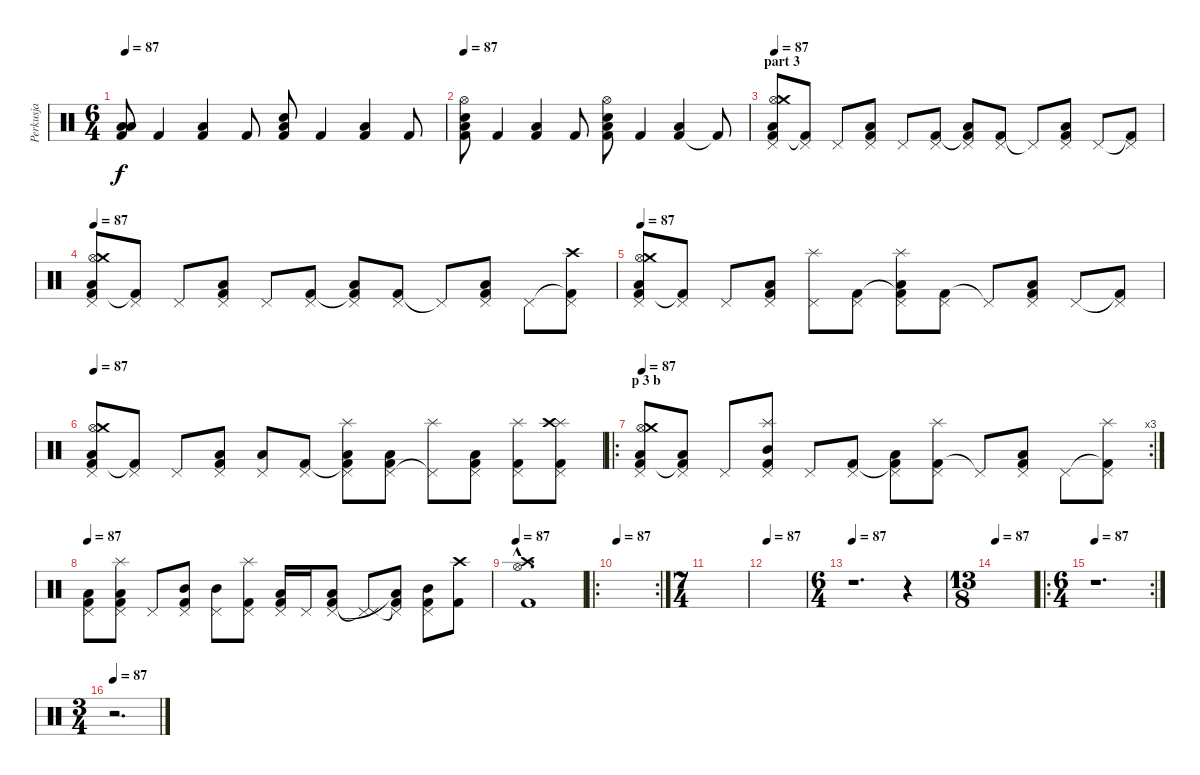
\track ("Perkusja" "Perkusja") {instrument percussion}
\staff {score}
\articulation defaults
\ts (6 4)
\tempo 87
\clef neutral
\ks c
("Kick (hit) 2" "Low Floor Tom (hit)" "Low Tom (hit)").8{dy f} "Kick (hit) 2".4 ("Kick (hit) 2" "Low Tom (hit)").4 "Kick (hit) 2".8 ("Kick (hit) 2" "Snare (hit) 2" "Low Tom (hit)").8 "Kick (hit) 2".4 ("Kick (hit) 2" "Low Tom (hit)").4 "Kick (hit) 2".8 |
\tempo 87
("Kick (hit) 2" "Hi-Hat (open)" "Snare (hit) 2" "Low Tom (hit)").8 "Kick (hit) 2".4 ("Kick (hit) 2" "Low Tom (hit)").4 "Kick (hit) 2".8 ("Kick (hit) 2" "Hi-Hat (open)" "Snare (hit) 2" "Low Tom (hit)").8 "Kick (hit) 2".4 ("Kick (hit) 2" "Low Tom (hit)").4 "Kick (hit) 2"{t}.8 |
\section ("" "part 3")
\tempo 87
("Kick (hit) 2" "Hi-Hat (open)" "Crash medium (hit)" "Pedal Hi-Hat (hit)" "Low Tom (hit)").8 ("Kick (hit) 2"{t} "Pedal Hi-Hat (hit)").8 "Pedal Hi-Hat (hit)".8 ("Kick (hit) 2" "Pedal Hi-Hat (hit)" "Low Tom (hit)").8 "Pedal Hi-Hat (hit)".8 ("Kick (hit) 2" "Pedal Hi-Hat (hit)").8 ("Kick (hit) 2"{t} "Pedal Hi-Hat (hit)" "Low Tom (hit)").8 ("Kick (hit) 2" "Pedal Hi-Hat (hit)").8 "Pedal Hi-Hat (hit)"{t}.8 ("Kick (hit) 2" "Pedal Hi-Hat (hit)" "Low Tom (hit)").8 "Pedal Hi-Hat (hit)".8 ("Kick (hit) 2"{t} "Pedal Hi-Hat (hit)").8 |
\tempo 87
("Kick (hit) 2" "Hi-Hat (open)" "Crash medium (hit)" "Pedal Hi-Hat (hit)" "Low Tom (hit)").8 ("Kick (hit) 2"{t} "Pedal Hi-Hat (hit)").8 "Pedal Hi-Hat (hit)".8 ("Kick (hit) 2" "Pedal Hi-Hat (hit)" "Low Tom (hit)").8 "Pedal Hi-Hat (hit)".8 ("Kick (hit) 2" "Pedal Hi-Hat (hit)").8 ("Kick (hit) 2"{t} "Pedal Hi-Hat (hit)" "Low Tom (hit)").8 ("Kick (hit) 2" "Pedal Hi-Hat (hit)").8 "Pedal Hi-Hat (hit)"{t}.8 ("Kick (hit) 2" "Pedal Hi-Hat (hit)" "Low Tom (hit)").8 "Pedal Hi-Hat (hit)".8 ("Kick (hit) 2"{t} "Crash high (hit)" "Pedal Hi-Hat (hit)").8 |
\tempo 87
("Kick (hit) 2" "Hi-Hat (open)" "Crash medium (hit)" "Pedal Hi-Hat (hit)" "Low Tom (hit)").8 ("Kick (hit) 2"{t} "Pedal Hi-Hat (hit)").8 "Pedal Hi-Hat (hit)".8 ("Kick (hit) 2" "Pedal Hi-Hat (hit)" "Low Tom (hit)").8 ("Splash (hit)" "Pedal Hi-Hat (hit)").8 ("Kick (hit) 2" "Pedal Hi-Hat (hit)").8 ("Kick (hit) 2"{t} "Splash (hit)" "Pedal Hi-Hat (hit)" "Low Tom (hit)").8 ("Kick (hit) 2" "Pedal Hi-Hat (hit)").8 "Pedal Hi-Hat (hit)"{t}.8 ("Kick (hit) 2" "Pedal Hi-Hat (hit)" "Low Tom (hit)").8 "Pedal Hi-Hat (hit)".8 ("Kick (hit) 2"{t} "Pedal Hi-Hat (hit)").8 |
\tempo 87
("Kick (hit) 2" "Hi-Hat (open)" "Crash medium (hit)" "Pedal Hi-Hat (hit)" "Low Tom (hit)").8 ("Kick (hit) 2"{t} "Pedal Hi-Hat (hit)").8 "Pedal Hi-Hat (hit)".8 ("Kick (hit) 2" "Pedal Hi-Hat (hit)" "Low Tom (hit)").8 ("Pedal Hi-Hat (hit)" "Low Tom (hit)").8 ("Kick (hit) 2" "Pedal Hi-Hat (hit)").8 ("Kick (hit) 2"{t} "Splash (hit)" "Pedal Hi-Hat (hit)" "Low Tom (hit)").8 ("Kick (hit) 2" "Pedal Hi-Hat (hit)" "Low Tom (hit)").8 ("Splash (hit)" "Pedal Hi-Hat (hit)"{t}).8 ("Kick (hit) 2" "Pedal Hi-Hat (hit)" "Low Tom (hit)").8 ("Kick (hit) 2" "Splash (hit)" "Pedal Hi-Hat (hit)").8 ("Kick (hit) 2" "Splash (hit)" "Crash high (hit)" "Pedal Hi-Hat (hit)").8 |
\ro
\rc 3
\section ("" "p 3 b")
\tempo 87
("Kick (hit) 2" "Hi-Hat (open)" "Crash medium (hit)" "Pedal Hi-Hat (hit)" "Low Tom (hit)").8 ("Kick (hit) 2"{t} "Pedal Hi-Hat (hit)" "Low Tom (hit)").8 "Pedal Hi-Hat (hit)".8 ("Kick (hit) 2" "Splash (hit)" "Pedal Hi-Hat (hit)" "Mid Tom (hit)").8 "Pedal Hi-Hat (hit)".8 ("Kick (hit) 2" "Pedal Hi-Hat (hit)").8 ("Kick (hit) 2"{t} "Pedal Hi-Hat (hit)" "Low Tom (hit)").8 ("Kick (hit) 2" "Splash (hit)" "Pedal Hi-Hat (hit)").8 "Pedal Hi-Hat (hit)"{t}.8 ("Kick (hit) 2" "Pedal Hi-Hat (hit)" "Low Tom (hit)").8 "Pedal Hi-Hat (hit)".8 ("Kick (hit) 2"{t} "Splash (hit)" "Pedal Hi-Hat (hit)").8 |
\tempo 87
("Kick (hit) 2" "Pedal Hi-Hat (hit)" "Low Tom (hit)").8 ("Kick (hit) 2" "Splash (hit)" "Pedal Hi-Hat (hit)" "Low Tom (hit)").8 "Pedal Hi-Hat (hit)".8 ("Kick (hit) 2" "Pedal Hi-Hat (hit)" "Mid Tom (hit)").8 ("Pedal Hi-Hat (hit)" "Mid Tom (hit)").8 ("Kick (hit) 2" "Splash (hit)" "Pedal Hi-Hat (hit)").8 ("Kick (hit) 2" "Low Tom (hit)" "Pedal Hi-Hat (hit)").16 "Pedal Hi-Hat (hit)".16 ("Kick (hit) 2" "Low Tom (hit)" "Pedal Hi-Hat (hit)").8 ("Pedal Hi-Hat (hit)"{t} "Pedal Hi-Hat (hit)").8 ("Kick (hit) 2"{t} "Pedal Hi-Hat (hit)" "Low Tom (hit)"{t}).8 ("Kick (hit) 2" "Mid Tom (hit)" "Pedal Hi-Hat (hit)").8 ("Kick (hit) 2" "Crash high (hit)").8 |
\tempo 87
("Kick (hit) 2"{hac} "Hi-Hat (open)"{hac} "Crash high (hit)"{hac}).1{d} |
\ro
\rc 2
\tempo 87
|
\ts (7 4)
|
\tempo 87
|
\ts (6 4)
\tempo 87
r.1{d} r.4 |
\ts (13 8)
\tempo 87
|
\ro
\rc 2
\ts (6 4)
\tempo 87
r.1{d} |
\ts (3 4)
\tempo 87
r.2{d}
